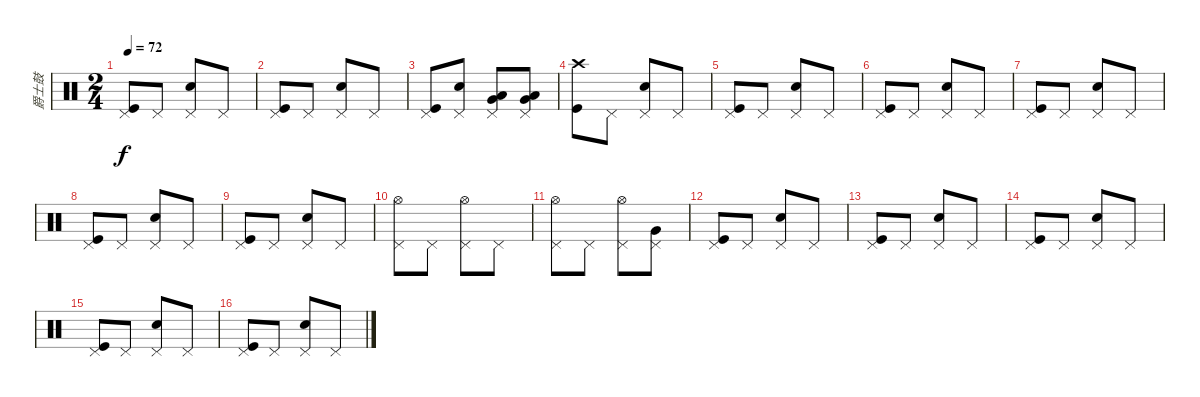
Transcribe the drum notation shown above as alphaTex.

\track ("爵士鼓" "爵士鼓") {instrument percussion}
\staff {score}
\articulation defaults
\ts (2 4)
\tempo 72
\clef neutral
\ks c
("Pedal Hi-Hat (hit)" "Kick (hit)").8{dy f} "Pedal Hi-Hat (hit)".8 ("Pedal Hi-Hat (hit)" "Electric Snare (hit)").8 "Pedal Hi-Hat (hit)".8 |
("Pedal Hi-Hat (hit)" "Kick (hit)").8 "Pedal Hi-Hat (hit)".8 ("Pedal Hi-Hat (hit)" "Electric Snare (hit)").8 "Pedal Hi-Hat (hit)".8 |
("Pedal Hi-Hat (hit)" "Kick (hit)").8 ("Pedal Hi-Hat (hit)" "Electric Snare (hit)").8 ("Pedal Hi-Hat (hit)" "Low Tom (hit)" "Very Low Tom (hit)").8 ("Pedal Hi-Hat (hit)" "Very Low Tom (hit)" "Low Floor Tom (hit)").8 |
("Crash high (hit)" "Kick (hit)").8 "Pedal Hi-Hat (hit)".8 ("Pedal Hi-Hat (hit)" "Electric Snare (hit)").8 "Pedal Hi-Hat (hit)".8 |
("Pedal Hi-Hat (hit)" "Kick (hit)").8 "Pedal Hi-Hat (hit)".8 ("Pedal Hi-Hat (hit)" "Electric Snare (hit)").8 "Pedal Hi-Hat (hit)".8 |
("Pedal Hi-Hat (hit)" "Kick (hit)").8 "Pedal Hi-Hat (hit)".8 ("Pedal Hi-Hat (hit)" "Electric Snare (hit)").8 "Pedal Hi-Hat (hit)".8 |
("Pedal Hi-Hat (hit)" "Kick (hit)").8 "Pedal Hi-Hat (hit)".8 ("Pedal Hi-Hat (hit)" "Electric Snare (hit)").8 "Pedal Hi-Hat (hit)".8 |
("Pedal Hi-Hat (hit)" "Kick (hit)").8 "Pedal Hi-Hat (hit)".8 ("Pedal Hi-Hat (hit)" "Electric Snare (hit)").8 "Pedal Hi-Hat (hit)".8 |
("Pedal Hi-Hat (hit)" "Kick (hit)").8 "Pedal Hi-Hat (hit)".8 ("Pedal Hi-Hat (hit)" "Electric Snare (hit)").8 "Pedal Hi-Hat (hit)".8 |
("Pedal Hi-Hat (hit)" "Hi-Hat (open)").8 "Pedal Hi-Hat (hit)".8 ("Pedal Hi-Hat (hit)" "Hi-Hat (open)").8 "Pedal Hi-Hat (hit)".8 |
("Pedal Hi-Hat (hit)" "Hi-Hat (open)").8 "Pedal Hi-Hat (hit)".8 ("Pedal Hi-Hat (hit)" "Hi-Hat (open)").8 ("Pedal Hi-Hat (hit)" "Very Low Tom (hit)").8 |
("Pedal Hi-Hat (hit)" "Kick (hit)").8 "Pedal Hi-Hat (hit)".8 ("Pedal Hi-Hat (hit)" "Electric Snare (hit)").8 "Pedal Hi-Hat (hit)".8 |
("Pedal Hi-Hat (hit)" "Kick (hit)").8 "Pedal Hi-Hat (hit)".8 ("Pedal Hi-Hat (hit)" "Electric Snare (hit)").8 "Pedal Hi-Hat (hit)".8 |
("Pedal Hi-Hat (hit)" "Kick (hit)").8 "Pedal Hi-Hat (hit)".8 ("Pedal Hi-Hat (hit)" "Electric Snare (hit)").8 "Pedal Hi-Hat (hit)".8 |
("Pedal Hi-Hat (hit)" "Kick (hit)").8 "Pedal Hi-Hat (hit)".8 ("Pedal Hi-Hat (hit)" "Electric Snare (hit)").8 "Pedal Hi-Hat (hit)".8 |
("Pedal Hi-Hat (hit)" "Kick (hit)").8 "Pedal Hi-Hat (hit)".8 ("Pedal Hi-Hat (hit)" "Electric Snare (hit)").8 "Pedal Hi-Hat (hit)".8
